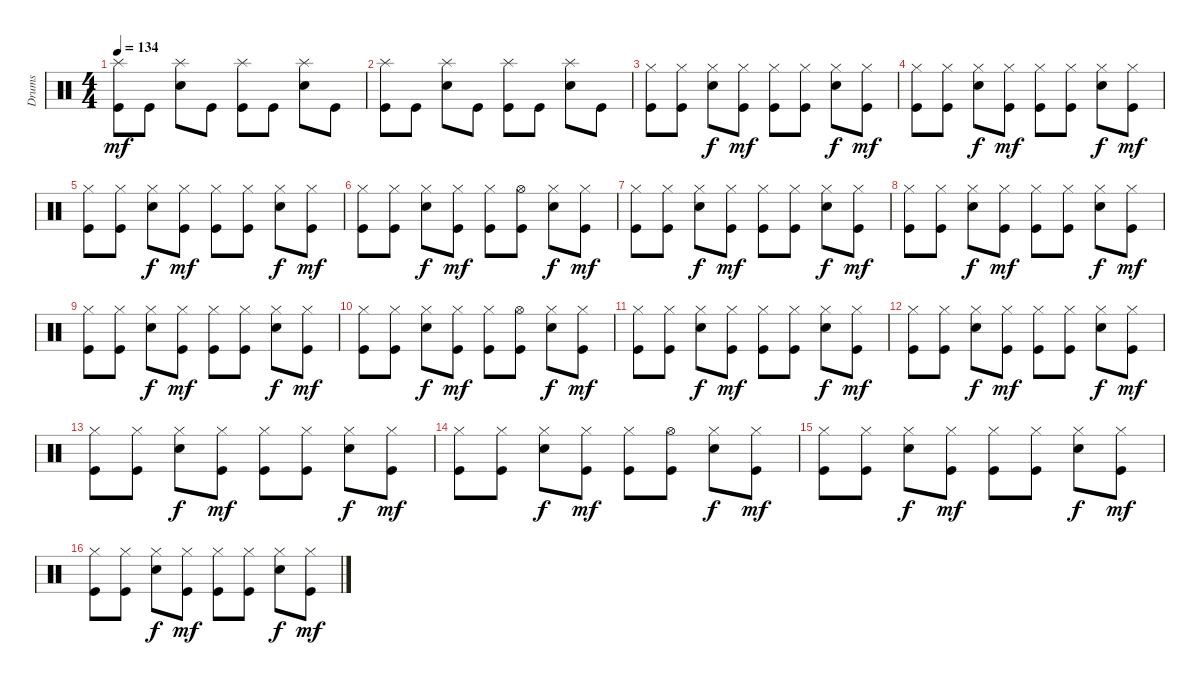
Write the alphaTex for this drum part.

\track ("Drums" "Drums") {instrument percussion}
\staff {score}
\articulation defaults
\ts (4 4)
\tempo 134
\clef neutral
\ks c
("Splash (hit)" "Kick (hit)").8{dy mf} "Kick (hit)".8 ("Splash (hit)" "Snare (hit) 2").8 "Kick (hit)".8 ("Splash (hit)" "Kick (hit)").8 "Kick (hit)".8 ("Splash (hit)" "Snare (hit) 2").8 "Kick (hit)".8 |
("Splash (hit)" "Kick (hit)").8 "Kick (hit)".8 ("Splash (hit)" "Snare (hit) 2").8 "Kick (hit)".8 ("Splash (hit)" "Kick (hit)").8 "Kick (hit)".8 ("Splash (hit)" "Snare (hit) 2").8 "Kick (hit)".8 |
("Hi-Hat (closed)" "Kick (hit)").8 ("Hi-Hat (closed)" "Kick (hit)").8 ("Hi-Hat (closed)" "Snare (hit) 2").8{dy f} ("Hi-Hat (closed)" "Kick (hit)").8{dy mf} ("Hi-Hat (closed)" "Kick (hit)").8 ("Hi-Hat (closed)" "Kick (hit)").8 ("Hi-Hat (closed)" "Snare (hit) 2").8{dy f} ("Hi-Hat (closed)" "Kick (hit)").8{dy mf} |
("Hi-Hat (closed)" "Kick (hit)").8 ("Hi-Hat (closed)" "Kick (hit)").8 ("Hi-Hat (closed)" "Snare (hit) 2").8{dy f} ("Hi-Hat (closed)" "Kick (hit)").8{dy mf} ("Hi-Hat (closed)" "Kick (hit)").8 ("Hi-Hat (closed)" "Kick (hit)").8 ("Hi-Hat (closed)" "Snare (hit) 2").8{dy f} ("Hi-Hat (closed)" "Kick (hit)").8{dy mf} |
("Hi-Hat (closed)" "Kick (hit)").8 ("Hi-Hat (closed)" "Kick (hit)").8 ("Hi-Hat (closed)" "Snare (hit) 2").8{dy f} ("Hi-Hat (closed)" "Kick (hit)").8{dy mf} ("Hi-Hat (closed)" "Kick (hit)").8 ("Hi-Hat (closed)" "Kick (hit)").8 ("Hi-Hat (closed)" "Snare (hit) 2").8{dy f} ("Hi-Hat (closed)" "Kick (hit)").8{dy mf} |
("Hi-Hat (closed)" "Kick (hit)").8 ("Hi-Hat (closed)" "Kick (hit)").8 ("Hi-Hat (closed)" "Snare (hit) 2").8{dy f} ("Hi-Hat (closed)" "Kick (hit)").8{dy mf} ("Hi-Hat (closed)" "Kick (hit)").8 ("Hi-Hat (open)" "Kick (hit)").8 ("Hi-Hat (closed)" "Snare (hit) 2").8{dy f} ("Hi-Hat (closed)" "Kick (hit)").8{dy mf} |
("Hi-Hat (closed)" "Kick (hit)").8 ("Hi-Hat (closed)" "Kick (hit)").8 ("Hi-Hat (closed)" "Snare (hit) 2").8{dy f} ("Hi-Hat (closed)" "Kick (hit)").8{dy mf} ("Hi-Hat (closed)" "Kick (hit)").8 ("Hi-Hat (closed)" "Kick (hit)").8 ("Hi-Hat (closed)" "Snare (hit) 2").8{dy f} ("Hi-Hat (closed)" "Kick (hit)").8{dy mf} |
("Hi-Hat (closed)" "Kick (hit)").8 ("Hi-Hat (closed)" "Kick (hit)").8 ("Hi-Hat (closed)" "Snare (hit) 2").8{dy f} ("Hi-Hat (closed)" "Kick (hit)").8{dy mf} ("Hi-Hat (closed)" "Kick (hit)").8 ("Hi-Hat (closed)" "Kick (hit)").8 ("Hi-Hat (closed)" "Snare (hit) 2").8{dy f} ("Hi-Hat (closed)" "Kick (hit)").8{dy mf} |
("Hi-Hat (closed)" "Kick (hit)").8 ("Hi-Hat (closed)" "Kick (hit)").8 ("Hi-Hat (closed)" "Snare (hit) 2").8{dy f} ("Hi-Hat (closed)" "Kick (hit)").8{dy mf} ("Hi-Hat (closed)" "Kick (hit)").8 ("Hi-Hat (closed)" "Kick (hit)").8 ("Hi-Hat (closed)" "Snare (hit) 2").8{dy f} ("Hi-Hat (closed)" "Kick (hit)").8{dy mf} |
("Hi-Hat (closed)" "Kick (hit)").8 ("Hi-Hat (closed)" "Kick (hit)").8 ("Hi-Hat (closed)" "Snare (hit) 2").8{dy f} ("Hi-Hat (closed)" "Kick (hit)").8{dy mf} ("Hi-Hat (closed)" "Kick (hit)").8 ("Hi-Hat (open)" "Kick (hit)").8 ("Hi-Hat (closed)" "Snare (hit) 2").8{dy f} ("Hi-Hat (closed)" "Kick (hit)").8{dy mf} |
("Hi-Hat (closed)" "Kick (hit)").8 ("Hi-Hat (closed)" "Kick (hit)").8 ("Hi-Hat (closed)" "Snare (hit) 2").8{dy f} ("Hi-Hat (closed)" "Kick (hit)").8{dy mf} ("Hi-Hat (closed)" "Kick (hit)").8 ("Hi-Hat (closed)" "Kick (hit)").8 ("Hi-Hat (closed)" "Snare (hit) 2").8{dy f} ("Hi-Hat (closed)" "Kick (hit)").8{dy mf} |
("Hi-Hat (closed)" "Kick (hit)").8 ("Hi-Hat (closed)" "Kick (hit)").8 ("Hi-Hat (closed)" "Snare (hit) 2").8{dy f} ("Hi-Hat (closed)" "Kick (hit)").8{dy mf} ("Hi-Hat (closed)" "Kick (hit)").8 ("Hi-Hat (closed)" "Kick (hit)").8 ("Hi-Hat (closed)" "Snare (hit) 2").8{dy f} ("Hi-Hat (closed)" "Kick (hit)").8{dy mf} |
("Hi-Hat (closed)" "Kick (hit)").8 ("Hi-Hat (closed)" "Kick (hit)").8 ("Hi-Hat (closed)" "Snare (hit) 2").8{dy f} ("Hi-Hat (closed)" "Kick (hit)").8{dy mf} ("Hi-Hat (closed)" "Kick (hit)").8 ("Hi-Hat (closed)" "Kick (hit)").8 ("Hi-Hat (closed)" "Snare (hit) 2").8{dy f} ("Hi-Hat (closed)" "Kick (hit)").8{dy mf} |
("Hi-Hat (closed)" "Kick (hit)").8 ("Hi-Hat (closed)" "Kick (hit)").8 ("Hi-Hat (closed)" "Snare (hit) 2").8{dy f} ("Hi-Hat (closed)" "Kick (hit)").8{dy mf} ("Hi-Hat (closed)" "Kick (hit)").8 ("Hi-Hat (open)" "Kick (hit)").8 ("Hi-Hat (closed)" "Snare (hit) 2").8{dy f} ("Hi-Hat (closed)" "Kick (hit)").8{dy mf} |
("Hi-Hat (closed)" "Kick (hit)").8 ("Hi-Hat (closed)" "Kick (hit)").8 ("Hi-Hat (closed)" "Snare (hit) 2").8{dy f} ("Hi-Hat (closed)" "Kick (hit)").8{dy mf} ("Hi-Hat (closed)" "Kick (hit)").8 ("Hi-Hat (closed)" "Kick (hit)").8 ("Hi-Hat (closed)" "Snare (hit) 2").8{dy f} ("Hi-Hat (closed)" "Kick (hit)").8{dy mf} |
("Hi-Hat (closed)" "Kick (hit)").8 ("Hi-Hat (closed)" "Kick (hit)").8 ("Hi-Hat (closed)" "Snare (hit) 2").8{dy f} ("Hi-Hat (closed)" "Kick (hit)").8{dy mf} ("Hi-Hat (closed)" "Kick (hit)").8 ("Hi-Hat (closed)" "Kick (hit)").8 ("Hi-Hat (closed)" "Snare (hit) 2").8{dy f} ("Hi-Hat (closed)" "Kick (hit)").8{dy mf}
